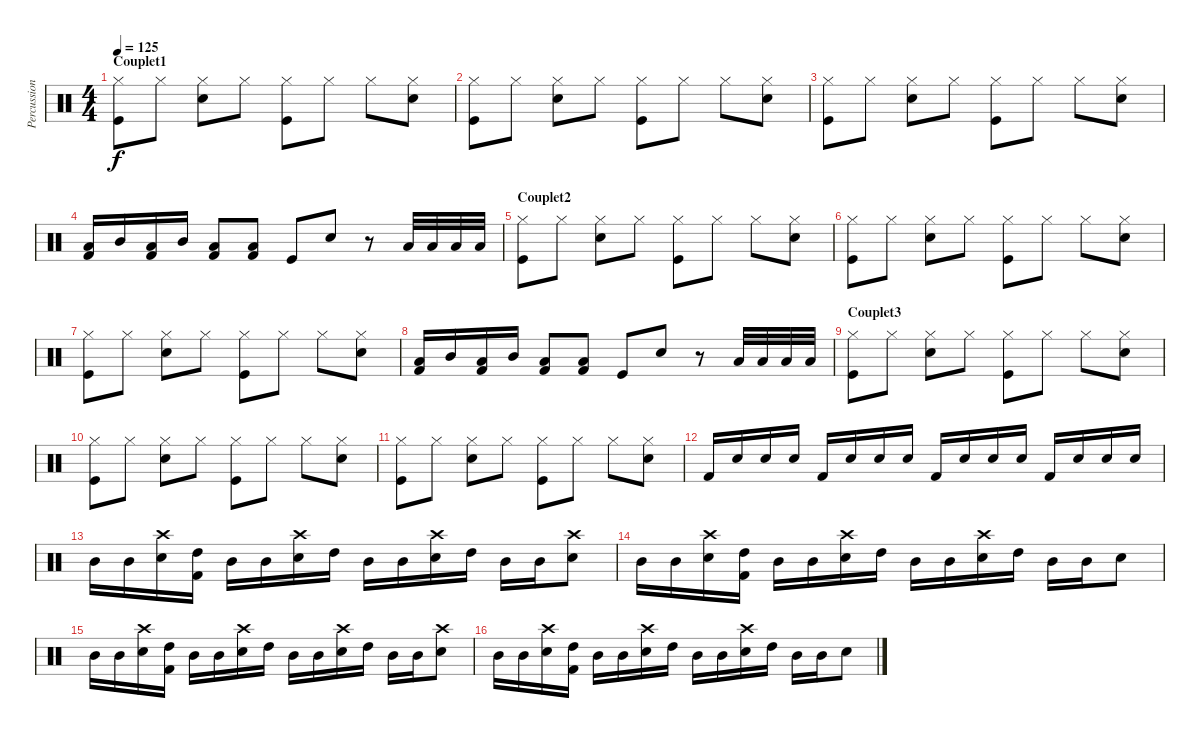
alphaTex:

\track ("Percussions" "Percussion") {instrument percussion}
\staff {score}
\articulation defaults
\ts (4 4)
\section ("" "Couplet1")
\tempo 125
\clef neutral
\ks c
("Hi-Hat (closed)" "Kick (hit)").8{dy f} "Hi-Hat (closed)".8 ("Hi-Hat (closed)" "Snare (hit) 2").8 "Hi-Hat (closed)".8 ("Hi-Hat (closed)" "Kick (hit)").8 "Hi-Hat (closed)".8 "Hi-Hat (closed)".8 ("Hi-Hat (closed)" "Snare (hit) 2").8 |
("Hi-Hat (closed)" "Kick (hit)").8 "Hi-Hat (closed)".8 ("Hi-Hat (closed)" "Snare (hit) 2").8 "Hi-Hat (closed)".8 ("Hi-Hat (closed)" "Kick (hit)").8 "Hi-Hat (closed)".8 "Hi-Hat (closed)".8 ("Hi-Hat (closed)" "Snare (hit) 2").8 |
("Hi-Hat (closed)" "Kick (hit)").8 "Hi-Hat (closed)".8 ("Hi-Hat (closed)" "Snare (hit) 2").8 "Hi-Hat (closed)".8 ("Hi-Hat (closed)" "Kick (hit)").8 "Hi-Hat (closed)".8 "Hi-Hat (closed)".8 ("Hi-Hat (closed)" "Snare (hit) 2").8 |
("Low Tom (hit)" "Kick (hit) 2").16 "Mid Tom (hit)".16 ("Low Tom (hit)" "Kick (hit) 2").16 "Mid Tom (hit)".16 ("Low Tom (hit)" "Kick (hit) 2").8 ("Low Tom (hit)" "Kick (hit) 2").8 "Kick (hit)".8 "Snare (hit) 2".8 r.8 "Low Tom (hit)".32 "Low Tom (hit)".32 "Low Tom (hit)".32 "Low Tom (hit)".32 |
\section ("" "Couplet2")
("Hi-Hat (closed)" "Kick (hit)").8 "Hi-Hat (closed)".8 ("Hi-Hat (closed)" "Snare (hit) 2").8 "Hi-Hat (closed)".8 ("Hi-Hat (closed)" "Kick (hit)").8 "Hi-Hat (closed)".8 "Hi-Hat (closed)".8 ("Hi-Hat (closed)" "Snare (hit) 2").8 |
("Hi-Hat (closed)" "Kick (hit)").8 "Hi-Hat (closed)".8 ("Hi-Hat (closed)" "Snare (hit) 2").8 "Hi-Hat (closed)".8 ("Hi-Hat (closed)" "Kick (hit)").8 "Hi-Hat (closed)".8 "Hi-Hat (closed)".8 ("Hi-Hat (closed)" "Snare (hit) 2").8 |
("Hi-Hat (closed)" "Kick (hit)").8 "Hi-Hat (closed)".8 ("Hi-Hat (closed)" "Snare (hit) 2").8 "Hi-Hat (closed)".8 ("Hi-Hat (closed)" "Kick (hit)").8 "Hi-Hat (closed)".8 "Hi-Hat (closed)".8 ("Hi-Hat (closed)" "Snare (hit) 2").8 |
("Low Tom (hit)" "Kick (hit) 2").16 "Mid Tom (hit)".16 ("Low Tom (hit)" "Kick (hit) 2").16 "Mid Tom (hit)".16 ("Low Tom (hit)" "Kick (hit) 2").8 ("Low Tom (hit)" "Kick (hit) 2").8 "Kick (hit)".8 "Snare (hit) 2".8 r.8 "Low Tom (hit)".32 "Low Tom (hit)".32 "Low Tom (hit)".32 "Low Tom (hit)".32 |
\section ("" "Couplet3")
("Hi-Hat (closed)" "Kick (hit)").8 "Hi-Hat (closed)".8 ("Hi-Hat (closed)" "Snare (hit) 2").8 "Hi-Hat (closed)".8 ("Hi-Hat (closed)" "Kick (hit)").8 "Hi-Hat (closed)".8 "Hi-Hat (closed)".8 ("Hi-Hat (closed)" "Snare (hit) 2").8 |
("Hi-Hat (closed)" "Kick (hit)").8 "Hi-Hat (closed)".8 ("Hi-Hat (closed)" "Snare (hit) 2").8 "Hi-Hat (closed)".8 ("Hi-Hat (closed)" "Kick (hit)").8 "Hi-Hat (closed)".8 "Hi-Hat (closed)".8 ("Hi-Hat (closed)" "Snare (hit) 2").8 |
("Hi-Hat (closed)" "Kick (hit)").8 "Hi-Hat (closed)".8 ("Hi-Hat (closed)" "Snare (hit) 2").8 "Hi-Hat (closed)".8 ("Hi-Hat (closed)" "Kick (hit)").8 "Hi-Hat (closed)".8 "Hi-Hat (closed)".8 ("Hi-Hat (closed)" "Snare (hit) 2").8 |
"Kick (hit) 2".16 "Snare (hit)".16 "Snare (hit)".16 "Snare (hit)".16 "Kick (hit) 2".16 "Snare (hit)".16 "Snare (hit)".16 "Snare (hit)".16 "Kick (hit) 2".16 "Snare (hit)".16 "Snare (hit)".16 "Snare (hit)".16 "Kick (hit) 2".16 "Snare (hit)".16 "Snare (hit)".16 "Snare (hit)".16 |
"Mid Tom (hit)".16 "Mid Tom (hit)".16 ("Crash high (hit)" "Snare (hit) 2").16 ("High Tom (hit)" "Kick (hit) 2").16 "Mid Tom (hit)".16 "Mid Tom (hit)".16 ("Crash high (hit)" "Snare (hit) 2").16 "High Tom (hit)".16 "Mid Tom (hit)".16 "Mid Tom (hit)".16 ("Crash high (hit)" "Snare (hit) 2").16 "High Tom (hit)".16 "Mid Tom (hit)".16 "Mid Tom (hit)".16 ("Crash high (hit)" "Snare (hit) 2").8 |
"Mid Tom (hit)".16 "Mid Tom (hit)".16 ("Crash high (hit)" "Snare (hit) 2").16 ("High Tom (hit)" "Kick (hit) 2").16 "Mid Tom (hit)".16 "Mid Tom (hit)".16 ("Crash high (hit)" "Snare (hit) 2").16 "High Tom (hit)".16 "Mid Tom (hit)".16 "Mid Tom (hit)".16 ("Crash high (hit)" "Snare (hit) 2").16 "High Tom (hit)".16 "Mid Tom (hit)".16 "Mid Tom (hit)".16 "Snare (hit) 2".8 |
"Mid Tom (hit)".16 "Mid Tom (hit)".16 ("Crash high (hit)" "Snare (hit) 2").16 ("High Tom (hit)" "Kick (hit) 2").16 "Mid Tom (hit)".16 "Mid Tom (hit)".16 ("Crash high (hit)" "Snare (hit) 2").16 "High Tom (hit)".16 "Mid Tom (hit)".16 "Mid Tom (hit)".16 ("Crash high (hit)" "Snare (hit) 2").16 "High Tom (hit)".16 "Mid Tom (hit)".16 "Mid Tom (hit)".16 ("Crash high (hit)" "Snare (hit) 2").8 |
"Mid Tom (hit)".16 "Mid Tom (hit)".16 ("Crash high (hit)" "Snare (hit) 2").16 ("High Tom (hit)" "Kick (hit) 2").16 "Mid Tom (hit)".16 "Mid Tom (hit)".16 ("Crash high (hit)" "Snare (hit) 2").16 "High Tom (hit)".16 "Mid Tom (hit)".16 "Mid Tom (hit)".16 ("Crash high (hit)" "Snare (hit) 2").16 "High Tom (hit)".16 "Mid Tom (hit)".16 "Mid Tom (hit)".16 "Snare (hit) 2".8
